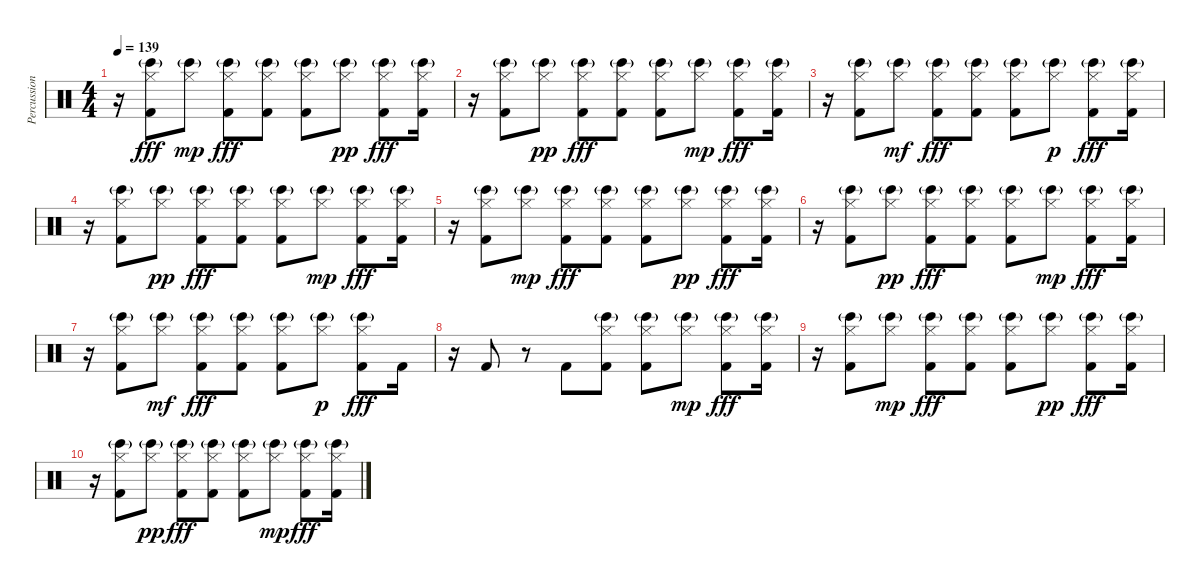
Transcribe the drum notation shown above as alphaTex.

\track ("Percussion" "Percussion") {instrument percussion}
\staff {score}
\articulation defaults
\ts (4 4)
\tempo 139
\clef neutral
\ks c
r.16{dy fff} ("Hi-Hat (closed)" "Bongo High (hit)"{g} "Kick (hit) 2").8{balance 16} ("Hi-Hat (closed)" "Bongo High (hit)"{g}).8{dy mp balance 0} ("Hi-Hat (closed)" "Bongo High (hit)"{g} "Kick (hit) 2").8{dy fff balance 16} ("Hi-Hat (closed)" "Bongo High (hit)"{g} "Kick (hit) 2").8{balance 0} ("Hi-Hat (closed)" "Bongo High (hit)"{g} "Kick (hit) 2").8{balance 16} ("Hi-Hat (closed)" "Bongo High (hit)"{g}).8{dy pp balance 0} ("Hi-Hat (closed)" "Bongo High (hit)"{g} "Kick (hit) 2").8{dy fff balance 16} ("Hi-Hat (closed)" "Bongo High (hit)"{g} "Kick (hit) 2").16{balance 0} |
r.16 ("Hi-Hat (closed)" "Bongo High (hit)"{g} "Kick (hit) 2").8{balance 16} ("Hi-Hat (closed)" "Bongo High (hit)"{g}).8{dy pp balance 0} ("Hi-Hat (closed)" "Bongo High (hit)"{g} "Kick (hit) 2").8{dy fff balance 16} ("Hi-Hat (closed)" "Bongo High (hit)"{g} "Kick (hit) 2").8{balance 0} ("Hi-Hat (closed)" "Bongo High (hit)"{g} "Kick (hit) 2").8{balance 16} ("Hi-Hat (closed)" "Bongo High (hit)"{g}).8{dy mp balance 0} ("Hi-Hat (closed)" "Bongo High (hit)"{g} "Kick (hit) 2").8{dy fff balance 16} ("Hi-Hat (closed)" "Bongo High (hit)"{g} "Kick (hit) 2").16{balance 0} |
r.16 ("Hi-Hat (closed)" "Bongo High (hit)"{g} "Kick (hit) 2").8{balance 16} ("Hi-Hat (closed)" "Bongo High (hit)"{g}).8{dy mf balance 0} ("Hi-Hat (closed)" "Bongo High (hit)"{g} "Kick (hit) 2").8{dy fff balance 16} ("Hi-Hat (closed)" "Bongo High (hit)"{g} "Kick (hit) 2").8{balance 0} ("Hi-Hat (closed)" "Bongo High (hit)"{g} "Kick (hit) 2").8{balance 16} ("Hi-Hat (closed)" "Bongo High (hit)"{g}).8{dy p balance 0} ("Hi-Hat (closed)" "Bongo High (hit)"{g} "Kick (hit) 2").8{dy fff balance 16} ("Hi-Hat (closed)" "Bongo High (hit)"{g} "Kick (hit) 2").16{balance 0} |
r.16 ("Hi-Hat (closed)" "Bongo High (hit)"{g} "Kick (hit) 2").8{balance 16} ("Hi-Hat (closed)" "Bongo High (hit)"{g}).8{dy pp balance 0} ("Hi-Hat (closed)" "Bongo High (hit)"{g} "Kick (hit) 2").8{dy fff balance 16} ("Hi-Hat (closed)" "Bongo High (hit)"{g} "Kick (hit) 2").8{balance 0} ("Hi-Hat (closed)" "Bongo High (hit)"{g} "Kick (hit) 2").8{balance 16} ("Hi-Hat (closed)" "Bongo High (hit)"{g}).8{dy mp balance 0} ("Hi-Hat (closed)" "Bongo High (hit)"{g} "Kick (hit) 2").8{dy fff balance 16} ("Hi-Hat (closed)" "Bongo High (hit)"{g} "Kick (hit) 2").16{balance 0} |
r.16 ("Hi-Hat (closed)" "Bongo High (hit)"{g} "Kick (hit) 2").8{balance 16} ("Hi-Hat (closed)" "Bongo High (hit)"{g}).8{dy mp balance 0} ("Hi-Hat (closed)" "Bongo High (hit)"{g} "Kick (hit) 2").8{dy fff balance 16} ("Hi-Hat (closed)" "Bongo High (hit)"{g} "Kick (hit) 2").8{balance 0} ("Hi-Hat (closed)" "Bongo High (hit)"{g} "Kick (hit) 2").8{balance 16} ("Hi-Hat (closed)" "Bongo High (hit)"{g}).8{dy pp balance 0} ("Hi-Hat (closed)" "Bongo High (hit)"{g} "Kick (hit) 2").8{dy fff balance 16} ("Hi-Hat (closed)" "Bongo High (hit)"{g} "Kick (hit) 2").16{balance 0} |
r.16 ("Hi-Hat (closed)" "Bongo High (hit)"{g} "Kick (hit) 2").8{balance 16} ("Hi-Hat (closed)" "Bongo High (hit)"{g}).8{dy pp balance 0} ("Hi-Hat (closed)" "Bongo High (hit)"{g} "Kick (hit) 2").8{dy fff balance 16} ("Hi-Hat (closed)" "Bongo High (hit)"{g} "Kick (hit) 2").8{balance 0} ("Hi-Hat (closed)" "Bongo High (hit)"{g} "Kick (hit) 2").8{balance 16} ("Hi-Hat (closed)" "Bongo High (hit)"{g}).8{dy mp balance 0} ("Hi-Hat (closed)" "Bongo High (hit)"{g} "Kick (hit) 2").8{dy fff balance 16} ("Hi-Hat (closed)" "Bongo High (hit)"{g} "Kick (hit) 2").16{balance 0} |
r.16 ("Hi-Hat (closed)" "Bongo High (hit)"{g} "Kick (hit) 2").8{balance 16} ("Hi-Hat (closed)" "Bongo High (hit)"{g}).8{dy mf balance 0} ("Hi-Hat (closed)" "Bongo High (hit)"{g} "Kick (hit) 2").8{dy fff balance 16} ("Hi-Hat (closed)" "Bongo High (hit)"{g} "Kick (hit) 2").8{balance 0} ("Hi-Hat (closed)" "Bongo High (hit)"{g} "Kick (hit) 2").8{balance 16} ("Hi-Hat (closed)" "Bongo High (hit)"{g}).8{dy p balance 0} ("Hi-Hat (closed)" "Bongo High (hit)"{g} "Kick (hit) 2").8{dy fff balance 16} "Kick (hit) 2".16{balance 0} |
r.16 "Kick (hit) 2".8{balance 16} r.8{balance 0} "Kick (hit) 2".8{balance 16} ("Hi-Hat (closed)" "Bongo High (hit)"{g} "Kick (hit) 2").8{balance 0} ("Hi-Hat (closed)" "Bongo High (hit)"{g} "Kick (hit) 2").8{balance 16} ("Hi-Hat (closed)" "Bongo High (hit)"{g}).8{dy mp balance 0} ("Hi-Hat (closed)" "Bongo High (hit)"{g} "Kick (hit) 2").8{dy fff balance 16} ("Hi-Hat (closed)" "Bongo High (hit)"{g} "Kick (hit) 2").16{balance 0} |
r.16 ("Hi-Hat (closed)" "Bongo High (hit)"{g} "Kick (hit) 2").8{balance 16} ("Hi-Hat (closed)" "Bongo High (hit)"{g}).8{dy mp balance 0} ("Hi-Hat (closed)" "Bongo High (hit)"{g} "Kick (hit) 2").8{dy fff balance 16} ("Hi-Hat (closed)" "Bongo High (hit)"{g} "Kick (hit) 2").8{balance 0} ("Hi-Hat (closed)" "Bongo High (hit)"{g} "Kick (hit) 2").8{balance 16} ("Hi-Hat (closed)" "Bongo High (hit)"{g}).8{dy pp balance 0} ("Hi-Hat (closed)" "Bongo High (hit)"{g} "Kick (hit) 2").8{dy fff balance 16} ("Hi-Hat (closed)" "Bongo High (hit)"{g} "Kick (hit) 2").16{balance 0} |
r.16 ("Hi-Hat (closed)" "Bongo High (hit)"{g} "Kick (hit) 2").8{balance 16} ("Hi-Hat (closed)" "Bongo High (hit)"{g}).8{dy pp balance 0} ("Hi-Hat (closed)" "Bongo High (hit)"{g} "Kick (hit) 2").8{dy fff balance 16} ("Hi-Hat (closed)" "Bongo High (hit)"{g} "Kick (hit) 2").8{balance 0} ("Hi-Hat (closed)" "Bongo High (hit)"{g} "Kick (hit) 2").8{balance 16} ("Hi-Hat (closed)" "Bongo High (hit)"{g}).8{dy mp balance 0} ("Hi-Hat (closed)" "Bongo High (hit)"{g} "Kick (hit) 2").8{dy fff balance 16} ("Hi-Hat (closed)" "Bongo High (hit)"{g} "Kick (hit) 2").16{balance 0}
